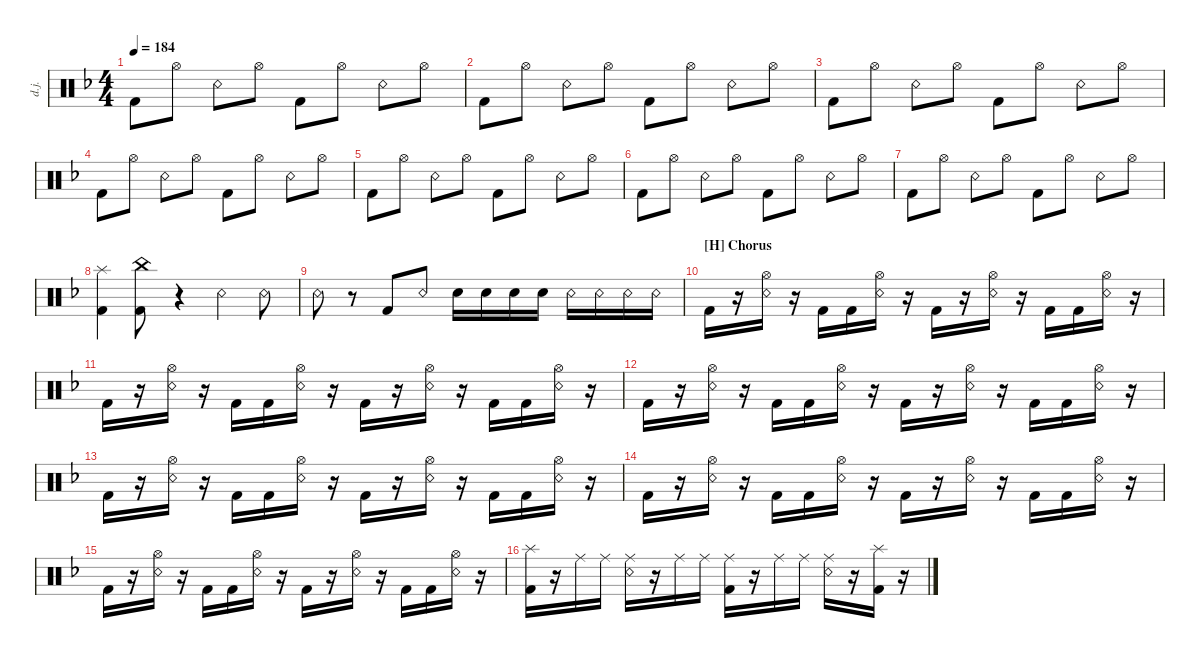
\defaultSystemsLayout 4
\hideDynamics
\bracketExtendMode nobrackets
\otherSystemsTrackNameOrientation horizontal
\track ("Drumkit Jason" "d.j.") {instrument percussion}
\staff {score}
\articulation defaults
\ts (4 4)
\tempo 184
\clef neutral
\ks dminor "Kick (hit) 2"{acc forcenatural}.8{dy ff beam Down} "Hi-Hat (open)"{acc forcenatural}.8{beam Down} "Snare (rim shot)"{acc forcenatural}.8{beam Down} "Hi-Hat (open)"{acc forcenatural}.8{beam Down} "Kick (hit) 2"{acc forcenatural}.8{beam Down} "Hi-Hat (open)"{acc forcenatural}.8{beam Down} "Snare (rim shot)"{acc forcenatural}.8{beam Down} "Hi-Hat (open)"{acc forcenatural}.8{beam Down}
|
"Kick (hit) 2"{acc forcenatural}.8{beam Down} "Hi-Hat (open)"{acc forcenatural}.8{beam Down} "Snare (rim shot)"{acc forcenatural}.8{beam Down} "Hi-Hat (open)"{acc forcenatural}.8{beam Down} "Kick (hit) 2"{acc forcenatural}.8{beam Down} "Hi-Hat (open)"{acc forcenatural}.8{beam Down} "Snare (rim shot)"{acc forcenatural}.8{beam Down} "Hi-Hat (open)"{acc forcenatural}.8{beam Down} |
"Kick (hit) 2"{acc forcenatural}.8{beam Down} "Hi-Hat (open)"{acc forcenatural}.8{beam Down} "Snare (rim shot)"{acc forcenatural}.8{beam Down} "Hi-Hat (open)"{acc forcenatural}.8{beam Down} "Kick (hit) 2"{acc forcenatural}.8{beam Down} "Hi-Hat (open)"{acc forcenatural}.8{beam Down} "Snare (rim shot)"{acc forcenatural}.8{beam Down} "Hi-Hat (open)"{acc forcenatural}.8{beam Down} |
"Kick (hit) 2"{acc forcenatural}.8{beam Down} "Hi-Hat (open)"{acc forcenatural}.8{beam Down} "Snare (rim shot)"{acc forcenatural}.8{beam Down} "Hi-Hat (open)"{acc forcenatural}.8{beam Down} "Kick (hit) 2"{acc forcenatural}.8{beam Down} "Hi-Hat (open)"{acc forcenatural}.8{beam Down} "Snare (rim shot)"{acc forcenatural}.8{beam Down} "Hi-Hat (open)"{acc forcenatural}.8{beam Down} |
"Kick (hit) 2"{acc forcenatural}.8{beam Down} "Hi-Hat (open)"{acc forcenatural}.8{beam Down} "Snare (rim shot)"{acc forcenatural}.8{beam Down} "Hi-Hat (open)"{acc forcenatural}.8{beam Down} "Kick (hit) 2"{acc forcenatural}.8{beam Down} "Hi-Hat (open)"{acc forcenatural}.8{beam Down} "Snare (rim shot)"{acc forcenatural}.8{beam Down} "Hi-Hat (open)"{acc forcenatural}.8{beam Down} |
"Kick (hit) 2"{acc forcenatural}.8{beam Down} "Hi-Hat (open)"{acc forcenatural}.8{beam Down} "Snare (rim shot)"{acc forcenatural}.8{beam Down} "Hi-Hat (open)"{acc forcenatural}.8{beam Down} "Kick (hit) 2"{acc forcenatural}.8{beam Down} "Hi-Hat (open)"{acc forcenatural}.8{beam Down} "Snare (rim shot)"{acc forcenatural}.8{beam Down} "Hi-Hat (open)"{acc forcenatural}.8{beam Down} |
"Kick (hit) 2"{acc forcenatural}.8{beam Down} "Hi-Hat (open)"{acc forcenatural}.8{beam Down} "Snare (rim shot)"{acc forcenatural}.8{beam Down} "Hi-Hat (open)"{acc forcenatural}.8{beam Down} "Kick (hit) 2"{acc forcenatural}.8{beam Down} "Hi-Hat (open)"{acc forcenatural}.8{beam Down} "Snare (rim shot)"{acc forcenatural}.8{beam Down} "Hi-Hat (open)"{acc forcenatural}.8{beam Down} |
("Splash (hit)"{acc forcenatural} "Kick (hit) 2"{acc forcenatural}).4{beam Down} ("China (hit)"{acc forcenatural} "Kick (hit) 2"{acc forcenatural}).8{beam Down} r.4{beam Down} "Snare (rim shot)"{acc forcenatural}.4{beam Down} "Snare (rim shot)"{acc forcenatural}.8{beam Down} |
"Snare (rim shot)"{acc forcenatural}.8{beam Down} r.8{beam Down} "Kick (hit) 2"{acc forcenatural}.8{beam Up} "Snare (rim shot)"{acc forcenatural}.8{beam Up} "Snare (hit) 2"{acc forcenatural}.16{beam Down} "Snare (hit) 2"{acc forcenatural}.16{beam Down} "Snare (hit) 2"{acc forcenatural}.16{beam Down} "Snare (hit) 2"{acc forcenatural}.16{beam Down} "Snare (rim shot)"{acc forcenatural}.16{beam Down} "Snare (rim shot)"{acc forcenatural}.16{beam Down} "Snare (rim shot)"{acc forcenatural}.16{beam Down} "Snare (rim shot)"{acc forcenatural}.16{beam Down} |
\section ("H" "Chorus")
"Kick (hit) 2"{acc forcenatural}.16{beam Down} r.16{beam Down} ("Snare (rim shot)"{acc forcenatural} "Hi-Hat (open)"{acc forcenatural}).16{beam Down} r.16{beam Down} "Kick (hit) 2"{acc forcenatural}.16{beam Down} "Kick (hit) 2"{acc forcenatural}.16{beam Down} ("Snare (rim shot)"{acc forcenatural} "Hi-Hat (open)"{acc forcenatural}).16{beam Down} r.16{beam Down} "Kick (hit) 2"{acc forcenatural}.16{beam Down} r.16{beam Down} ("Snare (rim shot)"{acc forcenatural} "Hi-Hat (open)"{acc forcenatural}).16{beam Down} r.16{beam Down} "Kick (hit) 2"{acc forcenatural}.16{beam Down} "Kick (hit) 2"{acc forcenatural}.16{beam Down} ("Snare (rim shot)"{acc forcenatural} "Hi-Hat (open)"{acc forcenatural}).16{beam Down} r.16{beam Down} |
"Kick (hit) 2"{acc forcenatural}.16{beam Down} r.16{beam Down} ("Snare (rim shot)"{acc forcenatural} "Hi-Hat (open)"{acc forcenatural}).16{beam Down} r.16{beam Down} "Kick (hit) 2"{acc forcenatural}.16{beam Down} "Kick (hit) 2"{acc forcenatural}.16{beam Down} ("Snare (rim shot)"{acc forcenatural} "Hi-Hat (open)"{acc forcenatural}).16{beam Down} r.16{beam Down} "Kick (hit) 2"{acc forcenatural}.16{beam Down} r.16{beam Down} ("Snare (rim shot)"{acc forcenatural} "Hi-Hat (open)"{acc forcenatural}).16{beam Down} r.16{beam Down} "Kick (hit) 2"{acc forcenatural}.16{beam Down} "Kick (hit) 2"{acc forcenatural}.16{beam Down} ("Snare (rim shot)"{acc forcenatural} "Hi-Hat (open)"{acc forcenatural}).16{beam Down} r.16{beam Down} |
"Kick (hit) 2"{acc forcenatural}.16{beam Down} r.16{beam Down} ("Snare (rim shot)"{acc forcenatural} "Hi-Hat (open)"{acc forcenatural}).16{beam Down} r.16{beam Down} "Kick (hit) 2"{acc forcenatural}.16{beam Down} "Kick (hit) 2"{acc forcenatural}.16{beam Down} ("Snare (rim shot)"{acc forcenatural} "Hi-Hat (open)"{acc forcenatural}).16{beam Down} r.16{beam Down} "Kick (hit) 2"{acc forcenatural}.16{beam Down} r.16{beam Down} ("Snare (rim shot)"{acc forcenatural} "Hi-Hat (open)"{acc forcenatural}).16{beam Down} r.16{beam Down} "Kick (hit) 2"{acc forcenatural}.16{beam Down} "Kick (hit) 2"{acc forcenatural}.16{beam Down} ("Snare (rim shot)"{acc forcenatural} "Hi-Hat (open)"{acc forcenatural}).16{beam Down} r.16{beam Down} |
"Kick (hit) 2"{acc forcenatural}.16{beam Down} r.16{beam Down} ("Snare (rim shot)"{acc forcenatural} "Hi-Hat (open)"{acc forcenatural}).16{beam Down} r.16{beam Down} "Kick (hit) 2"{acc forcenatural}.16{beam Down} "Kick (hit) 2"{acc forcenatural}.16{beam Down} ("Snare (rim shot)"{acc forcenatural} "Hi-Hat (open)"{acc forcenatural}).16{beam Down} r.16{beam Down} "Kick (hit) 2"{acc forcenatural}.16{beam Down} r.16{beam Down} ("Snare (rim shot)"{acc forcenatural} "Hi-Hat (open)"{acc forcenatural}).16{beam Down} r.16{beam Down} "Kick (hit) 2"{acc forcenatural}.16{beam Down} "Kick (hit) 2"{acc forcenatural}.16{beam Down} ("Snare (rim shot)"{acc forcenatural} "Hi-Hat (open)"{acc forcenatural}).16{beam Down} r.16{beam Down} |
"Kick (hit) 2"{acc forcenatural}.16{beam Down} r.16{beam Down} ("Snare (rim shot)"{acc forcenatural} "Hi-Hat (open)"{acc forcenatural}).16{beam Down} r.16{beam Down} "Kick (hit) 2"{acc forcenatural}.16{beam Down} "Kick (hit) 2"{acc forcenatural}.16{beam Down} ("Snare (rim shot)"{acc forcenatural} "Hi-Hat (open)"{acc forcenatural}).16{beam Down} r.16{beam Down} "Kick (hit) 2"{acc forcenatural}.16{beam Down} r.16{beam Down} ("Snare (rim shot)"{acc forcenatural} "Hi-Hat (open)"{acc forcenatural}).16{beam Down} r.16{beam Down} "Kick (hit) 2"{acc forcenatural}.16{beam Down} "Kick (hit) 2"{acc forcenatural}.16{beam Down} ("Snare (rim shot)"{acc forcenatural} "Hi-Hat (open)"{acc forcenatural}).16{beam Down} r.16{beam Down} |
"Kick (hit) 2"{acc forcenatural}.16{beam Down} r.16{beam Down} ("Snare (rim shot)"{acc forcenatural} "Hi-Hat (open)"{acc forcenatural}).16{beam Down} r.16{beam Down} "Kick (hit) 2"{acc forcenatural}.16{beam Down} "Kick (hit) 2"{acc forcenatural}.16{beam Down} ("Snare (rim shot)"{acc forcenatural} "Hi-Hat (open)"{acc forcenatural}).16{beam Down} r.16{beam Down} "Kick (hit) 2"{acc forcenatural}.16{beam Down} r.16{beam Down} ("Snare (rim shot)"{acc forcenatural} "Hi-Hat (open)"{acc forcenatural}).16{beam Down} r.16{beam Down} "Kick (hit) 2"{acc forcenatural}.16{beam Down} "Kick (hit) 2"{acc forcenatural}.16{beam Down} ("Snare (rim shot)"{acc forcenatural} "Hi-Hat (open)"{acc forcenatural}).16{beam Down} r.16{beam Down} |
("Splash (hit)"{acc forcenatural} "Kick (hit) 2"{acc forcenatural}).16{beam Down} r.16{beam Down} "Ride (middle)"{acc forcenatural}.16{beam Down} "Ride (middle)"{acc forcenatural}.16{beam Down} ("Ride (middle)"{acc forcenatural} "Snare (rim shot)"{acc forcenatural}).16{beam Down} r.16{beam Down} "Ride (middle)"{acc forcenatural}.16{beam Down} "Ride (middle)"{acc forcenatural}.16{beam Down} ("Ride (middle)"{acc forcenatural} "Kick (hit) 2"{acc forcenatural}).16{beam Down} r.16{beam Down} "Ride (middle)"{acc forcenatural}.16{beam Down} "Ride (middle)"{acc forcenatural}.16{beam Down} ("Ride (middle)"{acc forcenatural} "Snare (rim shot)"{acc forcenatural}).16{beam Down} r.16{beam Down} ("Splash (hit)"{acc forcenatural} "Kick (hit) 2"{acc forcenatural}).16{beam Down} r.16{beam Down}
